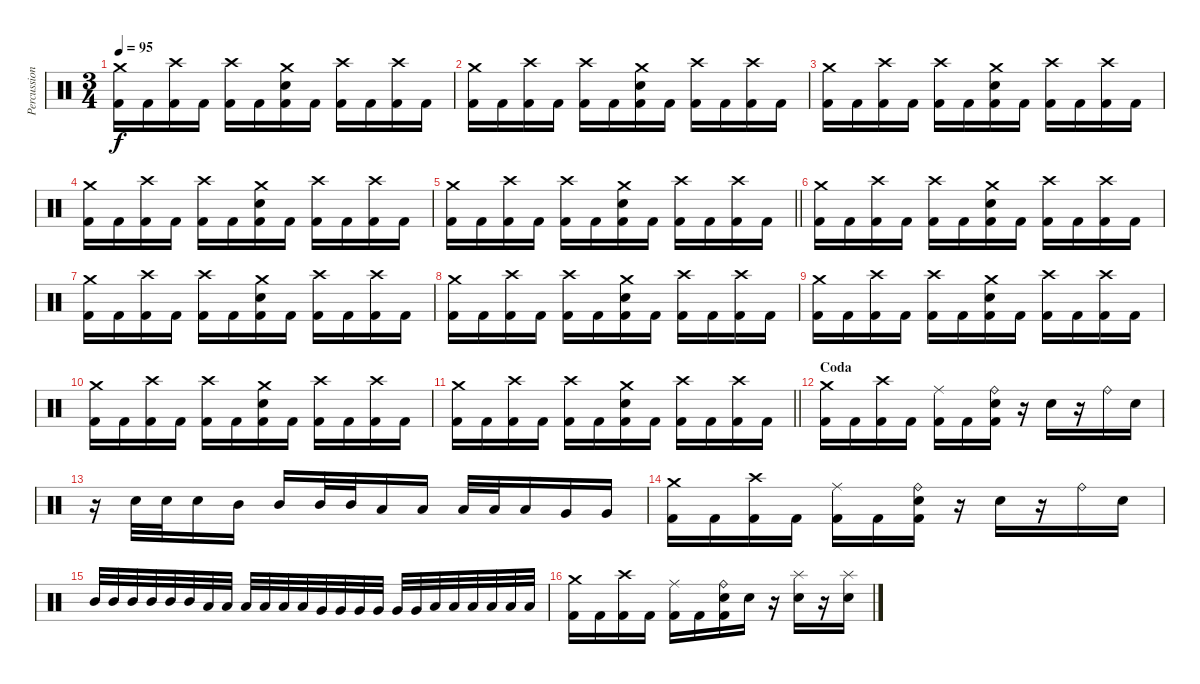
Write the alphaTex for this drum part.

\track ("Percussion" "Percussion") {instrument percussion}
\staff {score}
\articulation defaults
\ts (3 4)
\tempo 95
\clef neutral
\ks c
("Crash medium (hit)" "Kick (hit) 2").16{dy f} "Kick (hit) 2".16 ("Crash high (hit)" "Kick (hit) 2").16 "Kick (hit) 2".16 ("Crash high (hit)" "Kick (hit) 2").16 "Kick (hit) 2".16 ("Crash medium (hit)" "Electric Snare (hit)" "Kick (hit) 2").16 "Kick (hit) 2".16 ("Crash high (hit)" "Kick (hit) 2").16 "Kick (hit) 2".16 ("Crash high (hit)" "Kick (hit) 2").16 "Kick (hit) 2".16 |
("Crash medium (hit)" "Kick (hit) 2").16 "Kick (hit) 2".16 ("Crash high (hit)" "Kick (hit) 2").16 "Kick (hit) 2".16 ("Crash high (hit)" "Kick (hit) 2").16 "Kick (hit) 2".16 ("Crash medium (hit)" "Electric Snare (hit)" "Kick (hit) 2").16 "Kick (hit) 2".16 ("Crash high (hit)" "Kick (hit) 2").16 "Kick (hit) 2".16 ("Crash high (hit)" "Kick (hit) 2").16 "Kick (hit) 2".16 |
("Crash medium (hit)" "Kick (hit) 2").16 "Kick (hit) 2".16 ("Crash high (hit)" "Kick (hit) 2").16 "Kick (hit) 2".16 ("Crash high (hit)" "Kick (hit) 2").16 "Kick (hit) 2".16 ("Crash medium (hit)" "Electric Snare (hit)" "Kick (hit) 2").16 "Kick (hit) 2".16 ("Crash high (hit)" "Kick (hit) 2").16 "Kick (hit) 2".16 ("Crash high (hit)" "Kick (hit) 2").16 "Kick (hit) 2".16 |
("Crash medium (hit)" "Kick (hit) 2").16 "Kick (hit) 2".16 ("Crash high (hit)" "Kick (hit) 2").16 "Kick (hit) 2".16 ("Crash high (hit)" "Kick (hit) 2").16 "Kick (hit) 2".16 ("Crash medium (hit)" "Electric Snare (hit)" "Kick (hit) 2").16 "Kick (hit) 2".16 ("Crash high (hit)" "Kick (hit) 2").16 "Kick (hit) 2".16 ("Crash high (hit)" "Kick (hit) 2").16 "Kick (hit) 2".16 |
\barLineRight lightlight
("Crash medium (hit)" "Kick (hit) 2").16 "Kick (hit) 2".16 ("Crash high (hit)" "Kick (hit) 2").16 "Kick (hit) 2".16 ("Crash high (hit)" "Kick (hit) 2").16 "Kick (hit) 2".16 ("Crash medium (hit)" "Electric Snare (hit)" "Kick (hit) 2").16 "Kick (hit) 2".16 ("Crash high (hit)" "Kick (hit) 2").16 "Kick (hit) 2".16 ("Crash high (hit)" "Kick (hit) 2").16 "Kick (hit) 2".16 |
("Crash medium (hit)" "Kick (hit) 2").16 "Kick (hit) 2".16 ("Crash high (hit)" "Kick (hit) 2").16 "Kick (hit) 2".16 ("Crash high (hit)" "Kick (hit) 2").16 "Kick (hit) 2".16 ("Crash medium (hit)" "Electric Snare (hit)" "Kick (hit) 2").16 "Kick (hit) 2".16 ("Crash high (hit)" "Kick (hit) 2").16 "Kick (hit) 2".16 ("Crash high (hit)" "Kick (hit) 2").16 "Kick (hit) 2".16 |
("Crash medium (hit)" "Kick (hit) 2").16 "Kick (hit) 2".16 ("Crash high (hit)" "Kick (hit) 2").16 "Kick (hit) 2".16 ("Crash high (hit)" "Kick (hit) 2").16 "Kick (hit) 2".16 ("Crash medium (hit)" "Electric Snare (hit)" "Kick (hit) 2").16 "Kick (hit) 2".16 ("Crash high (hit)" "Kick (hit) 2").16 "Kick (hit) 2".16 ("Crash high (hit)" "Kick (hit) 2").16 "Kick (hit) 2".16 |
("Crash medium (hit)" "Kick (hit) 2").16 "Kick (hit) 2".16 ("Crash high (hit)" "Kick (hit) 2").16 "Kick (hit) 2".16 ("Crash high (hit)" "Kick (hit) 2").16 "Kick (hit) 2".16 ("Crash medium (hit)" "Electric Snare (hit)" "Kick (hit) 2").16 "Kick (hit) 2".16 ("Crash high (hit)" "Kick (hit) 2").16 "Kick (hit) 2".16 ("Crash high (hit)" "Kick (hit) 2").16 "Kick (hit) 2".16 |
("Crash medium (hit)" "Kick (hit) 2").16 "Kick (hit) 2".16 ("Crash high (hit)" "Kick (hit) 2").16 "Kick (hit) 2".16 ("Crash high (hit)" "Kick (hit) 2").16 "Kick (hit) 2".16 ("Crash medium (hit)" "Electric Snare (hit)" "Kick (hit) 2").16 "Kick (hit) 2".16 ("Crash high (hit)" "Kick (hit) 2").16 "Kick (hit) 2".16 ("Crash high (hit)" "Kick (hit) 2").16 "Kick (hit) 2".16 |
("Crash medium (hit)" "Kick (hit) 2").16 "Kick (hit) 2".16 ("Crash high (hit)" "Kick (hit) 2").16 "Kick (hit) 2".16 ("Crash high (hit)" "Kick (hit) 2").16 "Kick (hit) 2".16 ("Crash medium (hit)" "Electric Snare (hit)" "Kick (hit) 2").16 "Kick (hit) 2".16 ("Crash high (hit)" "Kick (hit) 2").16 "Kick (hit) 2".16 ("Crash high (hit)" "Kick (hit) 2").16 "Kick (hit) 2".16 |
\barLineRight lightlight
("Crash medium (hit)" "Kick (hit) 2").16 "Kick (hit) 2".16 ("Crash high (hit)" "Kick (hit) 2").16 "Kick (hit) 2".16 ("Crash high (hit)" "Kick (hit) 2").16 "Kick (hit) 2".16 ("Crash medium (hit)" "Electric Snare (hit)" "Kick (hit) 2").16 "Kick (hit) 2".16 ("Crash high (hit)" "Kick (hit) 2").16 "Kick (hit) 2".16 ("Crash high (hit)" "Kick (hit) 2").16 "Kick (hit) 2".16 |
\section ("" "Coda")
("Crash medium (hit)" "Kick (hit) 2").16 "Kick (hit) 2".16 ("Crash high (hit)" "Kick (hit) 2").16 "Kick (hit) 2".16 ("Ride (middle)" "Kick (hit) 2").16 "Kick (hit) 2".16 ("Ride (bell)" "Electric Snare (hit)" "Kick (hit) 2").16 r.16 "Electric Snare (hit)".16 r.16 "Ride (bell)".16 "Electric Snare (hit)".16 |
r.16 "Electric Snare (hit)".32 "Electric Snare (hit)".32 "Electric Snare (hit)".16 "Mid Tom (hit)".16 "Mid Tom (hit)".16 "Mid Tom (hit)".32 "Mid Tom (hit)".32 "Low Tom (hit)".16 "Low Tom (hit)".16 "Low Tom (hit)".32 "Low Tom (hit)".32 "Low Tom (hit)".16 "Very Low Tom (hit)".16 "Very Low Tom (hit)".16 |
("Crash medium (hit)" "Kick (hit) 2").16 "Kick (hit) 2".16 ("Crash high (hit)" "Kick (hit) 2").16 "Kick (hit) 2".16 ("Ride (middle)" "Kick (hit) 2").16 "Kick (hit) 2".16 ("Ride (bell)" "Electric Snare (hit)" "Kick (hit) 2").16 r.16 "Electric Snare (hit)".16 r.16 "Ride (bell)".16 "Electric Snare (hit)".16 |
"Mid Tom (hit)".32 "Mid Tom (hit)".32 "Mid Tom (hit)".32 "Mid Tom (hit)".32 "Mid Tom (hit)".32 "Mid Tom (hit)".32 "Low Tom (hit)".32 "Low Tom (hit)".32 "Low Tom (hit)".32 "Low Tom (hit)".32 "Low Tom (hit)".32 "Low Tom (hit)".32 "Very Low Tom (hit)".32 "Very Low Tom (hit)".32 "Very Low Tom (hit)".32 "Very Low Tom (hit)".32 "Very Low Tom (hit)".32 "Very Low Tom (hit)".32 "Low Floor Tom (hit)".32 "Low Floor Tom (hit)".32 "Low Floor Tom (hit)".32 "Low Floor Tom (hit)".32 "Low Floor Tom (hit)".32 "Low Floor Tom (hit)".32 |
("Crash medium (hit)" "Kick (hit) 2").16 "Kick (hit) 2".16 ("Crash high (hit)" "Kick (hit) 2").16 "Kick (hit) 2".16 ("Ride (middle)" "Kick (hit) 2").16 "Kick (hit) 2".16 ("Ride (bell)" "Electric Snare (hit)" "Kick (hit) 2").16 "Electric Snare (hit)".16 r.16 ("Splash (hit)" "Electric Snare (hit)").16 r.16 ("Splash (hit)" "Electric Snare (hit)").16
